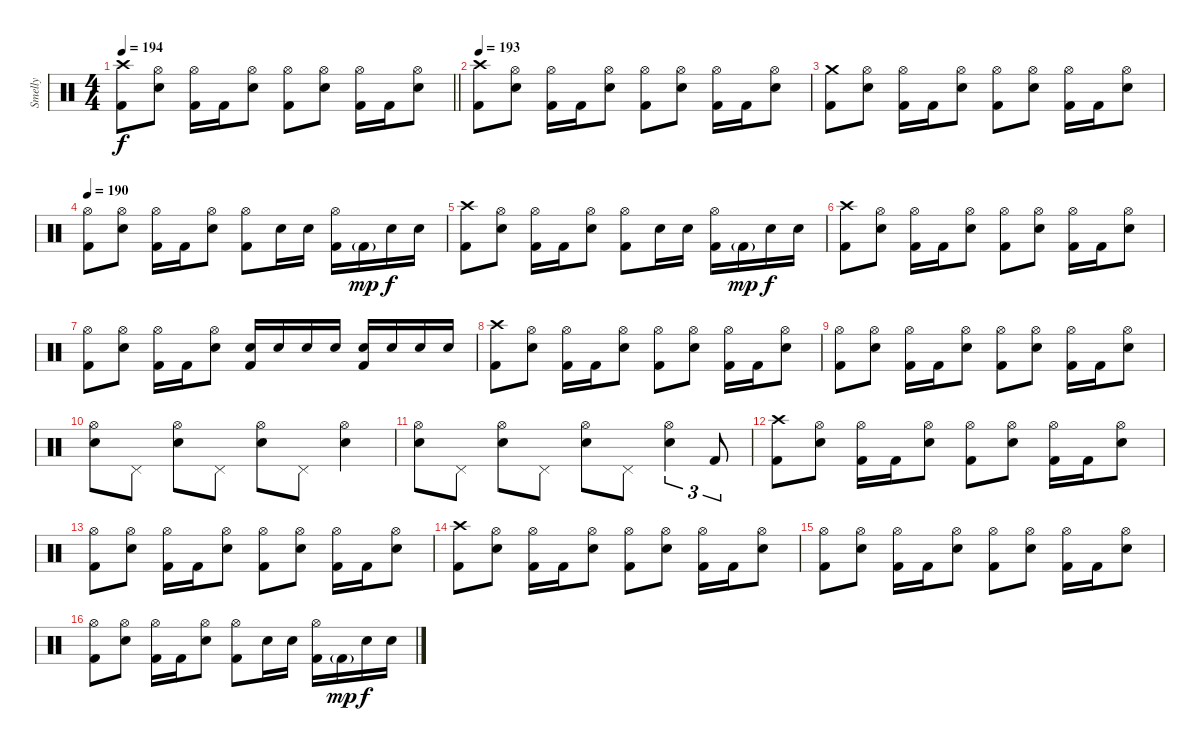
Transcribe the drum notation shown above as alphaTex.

\track ("Smelly" "Smelly") {instrument percussion}
\staff {score}
\articulation defaults
\ts (4 4)
\tempo 194
\clef neutral
\barLineRight lightlight
\ks c
("Crash high (hit)" "Kick (hit) 2").8{dy f} ("Hi-Hat (open)" "Electric Snare (hit)").8 ("Hi-Hat (open)" "Kick (hit) 2").16 "Kick (hit) 2".16 ("Hi-Hat (open)" "Electric Snare (hit)").8 ("Hi-Hat (open)" "Kick (hit) 2").8 ("Hi-Hat (open)" "Electric Snare (hit)").8 ("Hi-Hat (open)" "Kick (hit) 2").16 "Kick (hit) 2".16 ("Hi-Hat (open)" "Electric Snare (hit)").8 |
\section ("" "")
\tempo 193
("Crash high (hit)" "Kick (hit) 2").8 ("Hi-Hat (open)" "Electric Snare (hit)").8 ("Hi-Hat (open)" "Kick (hit) 2").16 "Kick (hit) 2".16 ("Hi-Hat (open)" "Electric Snare (hit)").8 ("Hi-Hat (open)" "Kick (hit) 2").8 ("Hi-Hat (open)" "Electric Snare (hit)").8 ("Hi-Hat (open)" "Kick (hit) 2").16 "Kick (hit) 2".16 ("Hi-Hat (open)" "Electric Snare (hit)").8 |
("Crash medium (hit)" "Kick (hit) 2").8 ("Hi-Hat (open)" "Electric Snare (hit)").8 ("Hi-Hat (open)" "Kick (hit) 2").16 "Kick (hit) 2".16 ("Hi-Hat (open)" "Electric Snare (hit)").8 ("Hi-Hat (open)" "Kick (hit) 2").8 ("Hi-Hat (open)" "Electric Snare (hit)").8 ("Hi-Hat (open)" "Kick (hit) 2").16 "Kick (hit) 2".16 ("Hi-Hat (open)" "Electric Snare (hit)").8 |
\tempo 190
("Hi-Hat (open)" "Kick (hit) 2").8 ("Hi-Hat (open)" "Electric Snare (hit)").8 ("Hi-Hat (open)" "Kick (hit) 2").16 "Kick (hit) 2".16 ("Hi-Hat (open)" "Electric Snare (hit)").8 ("Hi-Hat (open)" "Kick (hit) 2").8 "Electric Snare (hit)".16 "Electric Snare (hit)".16 ("Hi-Hat (open)" "Kick (hit) 2").16 "Kick (hit) 2"{g}.16{dy mp} "Electric Snare (hit)".16{dy f} "Electric Snare (hit)".16 |
("Crash high (hit)" "Kick (hit) 2").8 ("Hi-Hat (open)" "Electric Snare (hit)").8 ("Hi-Hat (open)" "Kick (hit) 2").16 "Kick (hit) 2".16 ("Hi-Hat (open)" "Electric Snare (hit)").8 ("Hi-Hat (open)" "Kick (hit) 2").8 "Electric Snare (hit)".16 "Electric Snare (hit)".16 ("Hi-Hat (open)" "Kick (hit) 2").16 "Kick (hit) 2"{g}.16{dy mp} "Electric Snare (hit)".16{dy f} "Electric Snare (hit)".16 |
("Crash high (hit)" "Kick (hit) 2").8 ("Hi-Hat (open)" "Electric Snare (hit)").8 ("Hi-Hat (open)" "Kick (hit) 2").16 "Kick (hit) 2".16 ("Hi-Hat (open)" "Electric Snare (hit)").8 ("Hi-Hat (open)" "Kick (hit) 2").8 ("Hi-Hat (open)" "Electric Snare (hit)").8 ("Hi-Hat (open)" "Kick (hit) 2").16 "Kick (hit) 2".16 ("Hi-Hat (open)" "Electric Snare (hit)").8 |
("Hi-Hat (open)" "Kick (hit) 2").8 ("Hi-Hat (open)" "Electric Snare (hit)").8 ("Hi-Hat (open)" "Kick (hit) 2").16 "Kick (hit) 2".16 ("Hi-Hat (open)" "Electric Snare (hit)").8 ("Electric Snare (hit)" "Kick (hit) 2").16 "Electric Snare (hit)".16 "Electric Snare (hit)".16 "Electric Snare (hit)".16 ("Electric Snare (hit)" "Kick (hit) 2").16 "Electric Snare (hit)".16 "Electric Snare (hit)".16 "Electric Snare (hit)".16 |
("Crash high (hit)" "Kick (hit) 2").8 ("Hi-Hat (open)" "Electric Snare (hit)").8 ("Hi-Hat (open)" "Kick (hit) 2").16 "Kick (hit) 2".16 ("Hi-Hat (open)" "Electric Snare (hit)").8 ("Hi-Hat (open)" "Kick (hit) 2").8 ("Hi-Hat (open)" "Electric Snare (hit)").8 ("Hi-Hat (open)" "Kick (hit) 2").16 "Kick (hit) 2".16 ("Hi-Hat (open)" "Electric Snare (hit)").8 |
("Hi-Hat (open)" "Kick (hit) 2").8 ("Hi-Hat (open)" "Electric Snare (hit)").8 ("Hi-Hat (open)" "Kick (hit) 2").16 "Kick (hit) 2".16 ("Hi-Hat (open)" "Electric Snare (hit)").8 ("Hi-Hat (open)" "Kick (hit) 2").8 ("Hi-Hat (open)" "Electric Snare (hit)").8 ("Hi-Hat (open)" "Kick (hit) 2").16 "Kick (hit) 2".16 ("Hi-Hat (open)" "Electric Snare (hit)").8 |
("Hi-Hat (open)" "Electric Snare (hit)").8 "Pedal Hi-Hat (hit)".8 ("Hi-Hat (open)" "Electric Snare (hit)").8 "Pedal Hi-Hat (hit)".8 ("Hi-Hat (open)" "Electric Snare (hit)").8 "Pedal Hi-Hat (hit)".8 ("Hi-Hat (open)" "Electric Snare (hit)").4 |
("Hi-Hat (open)" "Electric Snare (hit)").8 "Pedal Hi-Hat (hit)".8 ("Hi-Hat (open)" "Electric Snare (hit)").8 "Pedal Hi-Hat (hit)".8 ("Hi-Hat (open)" "Electric Snare (hit)").8 "Pedal Hi-Hat (hit)".8 ("Hi-Hat (open)" "Electric Snare (hit)").4{tu (3 2)} "Kick (hit) 2".8{tu (3 2)} |
("Crash high (hit)" "Kick (hit) 2").8 ("Hi-Hat (open)" "Electric Snare (hit)").8 ("Hi-Hat (open)" "Kick (hit) 2").16 "Kick (hit) 2".16 ("Hi-Hat (open)" "Electric Snare (hit)").8 ("Hi-Hat (open)" "Kick (hit) 2").8 ("Hi-Hat (open)" "Electric Snare (hit)").8 ("Hi-Hat (open)" "Kick (hit) 2").16 "Kick (hit) 2".16 ("Hi-Hat (open)" "Electric Snare (hit)").8 |
("Hi-Hat (open)" "Kick (hit) 2").8 ("Hi-Hat (open)" "Electric Snare (hit)").8 ("Hi-Hat (open)" "Kick (hit) 2").16 "Kick (hit) 2".16 ("Hi-Hat (open)" "Electric Snare (hit)").8 ("Hi-Hat (open)" "Kick (hit) 2").8 ("Hi-Hat (open)" "Electric Snare (hit)").8 ("Hi-Hat (open)" "Kick (hit) 2").16 "Kick (hit) 2".16 ("Hi-Hat (open)" "Electric Snare (hit)").8 |
("Crash high (hit)" "Kick (hit) 2").8 ("Hi-Hat (open)" "Electric Snare (hit)").8 ("Hi-Hat (open)" "Kick (hit) 2").16 "Kick (hit) 2".16 ("Hi-Hat (open)" "Electric Snare (hit)").8 ("Hi-Hat (open)" "Kick (hit) 2").8 ("Hi-Hat (open)" "Electric Snare (hit)").8 ("Hi-Hat (open)" "Kick (hit) 2").16 "Kick (hit) 2".16 ("Hi-Hat (open)" "Electric Snare (hit)").8 |
("Hi-Hat (open)" "Kick (hit) 2").8 ("Hi-Hat (open)" "Electric Snare (hit)").8 ("Hi-Hat (open)" "Kick (hit) 2").16 "Kick (hit) 2".16 ("Hi-Hat (open)" "Electric Snare (hit)").8 ("Hi-Hat (open)" "Kick (hit) 2").8 ("Hi-Hat (open)" "Electric Snare (hit)").8 ("Hi-Hat (open)" "Kick (hit) 2").16 "Kick (hit) 2".16 ("Hi-Hat (open)" "Electric Snare (hit)").8 |
("Hi-Hat (open)" "Kick (hit) 2").8 ("Hi-Hat (open)" "Electric Snare (hit)").8 ("Hi-Hat (open)" "Kick (hit) 2").16 "Kick (hit) 2".16 ("Hi-Hat (open)" "Electric Snare (hit)").8 ("Hi-Hat (open)" "Kick (hit) 2").8 "Electric Snare (hit)".16 "Electric Snare (hit)".16 ("Hi-Hat (open)" "Kick (hit) 2").16 "Kick (hit) 2"{g}.16{dy mp} "Electric Snare (hit)".16{dy f} "Electric Snare (hit)".16
